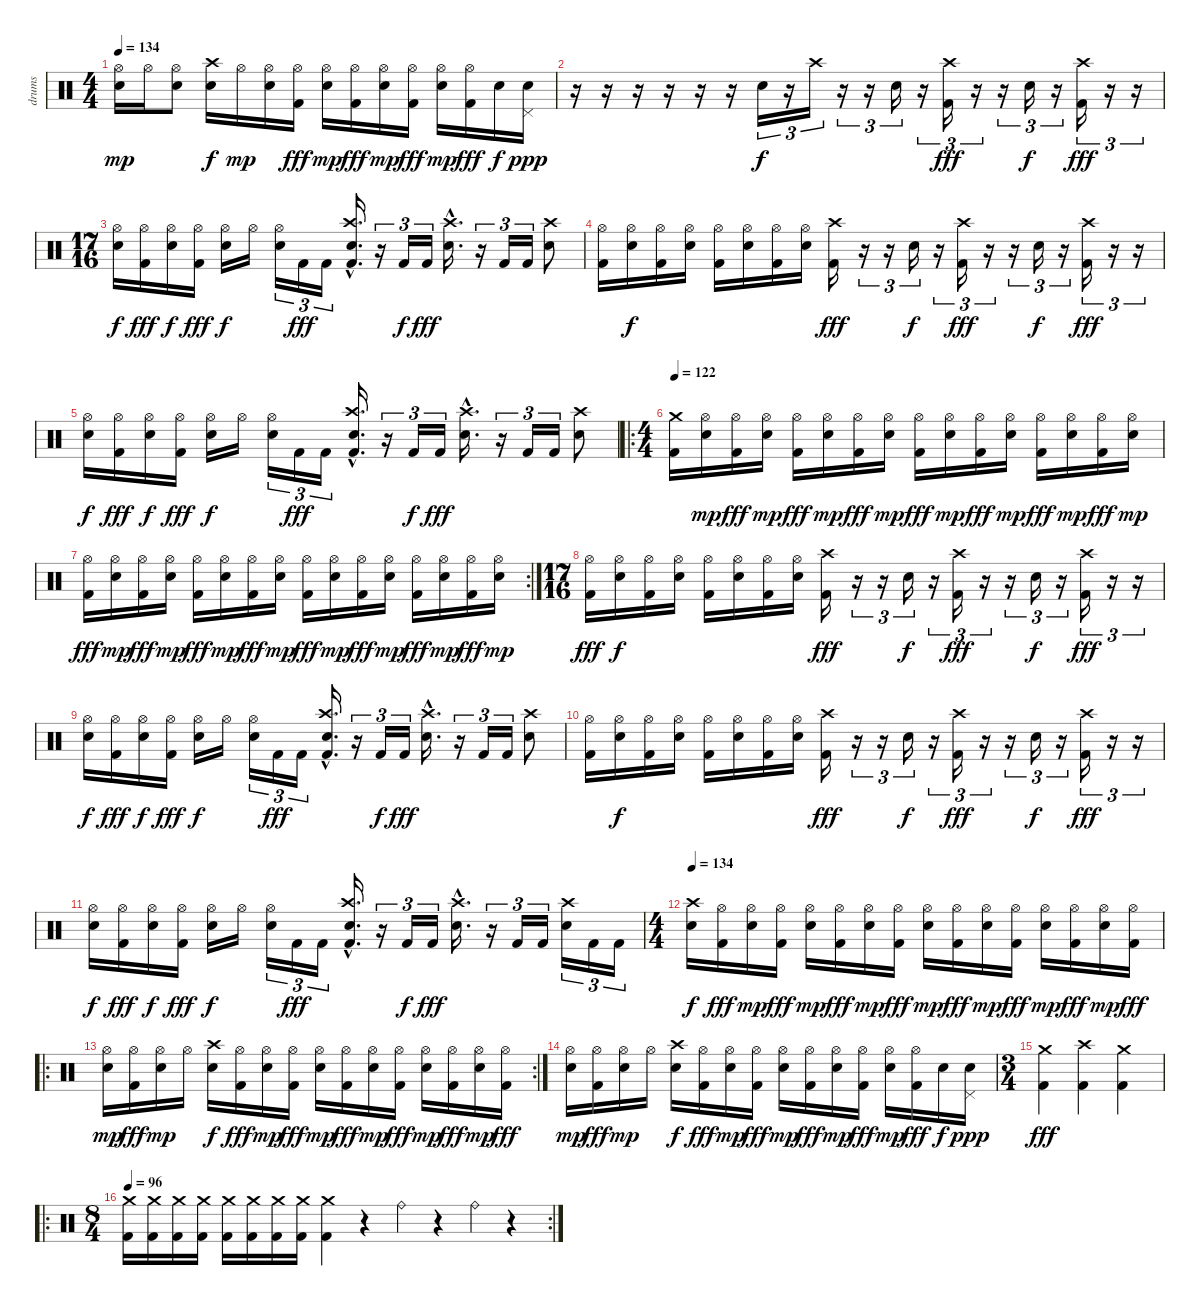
\track ("drums" "drums") {instrument percussion}
\staff {score}
\articulation defaults
\ts (4 4)
\tempo 134
\clef neutral
\ks c
("Hi-Hat (open)" "Snare (hit) 2").16{dy mp} "Hi-Hat (open)".16 ("Hi-Hat (open)" "Snare (hit) 2").8 ("Crash high (hit)" "Snare (hit) 2").16{dy f} "Hi-Hat (open)".16{dy mp} ("Hi-Hat (open)" "Snare (hit) 2").16 ("Hi-Hat (open)" "Kick (hit) 2").16{dy fff} ("Hi-Hat (open)" "Snare (hit) 2").16{dy mp} ("Hi-Hat (open)" "Kick (hit) 2").16{dy fff} ("Hi-Hat (open)" "Snare (hit) 2").16{dy mp} ("Hi-Hat (open)" "Kick (hit) 2").16{dy fff} ("Hi-Hat (open)" "Snare (hit) 2").16{dy mp} ("Hi-Hat (open)" "Kick (hit) 2").16{dy fff} "Snare (hit) 2".16{dy f} ("Snare (hit) 2" "Pedal Hi-Hat (hit)").16{dy ppp} |
r.16 r.16 r.16 r.16 r.16 r.16 "Snare (hit) 2".16{tu (3 2) dy f} r.16{tu (3 2)} "Crash high (hit)".16{tu (3 2)} r.16{tu (3 2)} r.16{tu (3 2)} "Snare (hit) 2".16{tu (3 2)} r.16{tu (3 2)} ("Crash high (hit)" "Kick (hit) 2").16{tu (3 2) dy fff} r.16{tu (3 2)} r.16{tu (3 2)} "Snare (hit) 2".16{tu (3 2) dy f} r.16{tu (3 2)} ("Crash high (hit)" "Kick (hit) 2").16{tu (3 2) dy fff} r.16{tu (3 2)} r.16{tu (3 2)} |
\ts (17 16)
("Hi-Hat (open)" "Snare (hit) 2").16{dy f} ("Hi-Hat (open)" "Kick (hit) 2").16{dy fff} ("Hi-Hat (open)" "Snare (hit) 2").16{dy f} ("Hi-Hat (open)" "Kick (hit) 2").16{dy fff} ("Hi-Hat (open)" "Snare (hit) 2").16{dy f} "Hi-Hat (open)".16 ("Hi-Hat (open)" "Snare (hit) 2").16{tu (3 2)} "Kick (hit) 2".16{tu (3 2) dy fff} "Kick (hit) 2".16{tu (3 2)} ("Crash high (hit)"{hac} "Snare (hit) 2"{hac} "Kick (hit) 2"{hac}).16{d} r.16{tu (3 2)} "Kick (hit) 2".16{tu (3 2) dy f} "Kick (hit) 2".16{tu (3 2) dy fff} ("Crash high (hit)"{hac} "Snare (hit) 2"{hac}).16{d} r.16{tu (3 2)} "Kick (hit) 2".16{tu (3 2)} "Kick (hit) 2".16{tu (3 2)} ("Crash high (hit)" "Snare (hit) 2").8 |
("Hi-Hat (open)" "Kick (hit) 2").16 ("Hi-Hat (open)" "Snare (hit) 2").16{dy f} ("Hi-Hat (open)" "Kick (hit) 2").16 ("Hi-Hat (open)" "Snare (hit) 2").16 ("Hi-Hat (open)" "Kick (hit) 2").16 ("Hi-Hat (open)" "Snare (hit) 2").16 ("Hi-Hat (open)" "Kick (hit) 2").16 ("Hi-Hat (open)" "Snare (hit) 2").16 ("Crash high (hit)" "Kick (hit) 2").16{dy fff} r.16{tu (3 2)} r.16{tu (3 2)} "Snare (hit) 2".16{tu (3 2) dy f} r.16{tu (3 2)} ("Crash high (hit)" "Kick (hit) 2").16{tu (3 2) dy fff} r.16{tu (3 2)} r.16{tu (3 2)} "Snare (hit) 2".16{tu (3 2) dy f} r.16{tu (3 2)} ("Crash high (hit)" "Kick (hit) 2").16{tu (3 2) dy fff} r.16{tu (3 2)} r.16{tu (3 2)} |
("Hi-Hat (open)" "Snare (hit) 2").16{dy f} ("Hi-Hat (open)" "Kick (hit) 2").16{dy fff} ("Hi-Hat (open)" "Snare (hit) 2").16{dy f} ("Hi-Hat (open)" "Kick (hit) 2").16{dy fff} ("Hi-Hat (open)" "Snare (hit) 2").16{dy f} "Hi-Hat (open)".16 ("Hi-Hat (open)" "Snare (hit) 2").16{tu (3 2)} "Kick (hit) 2".16{tu (3 2) dy fff} "Kick (hit) 2".16{tu (3 2)} ("Crash high (hit)"{hac} "Snare (hit) 2"{hac} "Kick (hit) 2"{hac}).16{d} r.16{tu (3 2)} "Kick (hit) 2".16{tu (3 2) dy f} "Kick (hit) 2".16{tu (3 2) dy fff} ("Crash high (hit)"{hac} "Snare (hit) 2"{hac}).16{d} r.16{tu (3 2)} "Kick (hit) 2".16{tu (3 2)} "Kick (hit) 2".16{tu (3 2)} ("Crash high (hit)" "Snare (hit) 2").8 |
\ro
\ts (4 4)
\tempo 122
("Crash medium (hit)" "Kick (hit) 2").16 ("Hi-Hat (open)" "Snare (hit) 2").16{dy mp} ("Hi-Hat (open)" "Kick (hit) 2").16{dy fff} ("Hi-Hat (open)" "Snare (hit) 2").16{dy mp} ("Hi-Hat (open)" "Kick (hit) 2").16{dy fff} ("Hi-Hat (open)" "Snare (hit) 2").16{dy mp} ("Hi-Hat (open)" "Kick (hit) 2").16{dy fff} ("Hi-Hat (open)" "Snare (hit) 2").16{dy mp} ("Hi-Hat (open)" "Kick (hit) 2").16{dy fff} ("Hi-Hat (open)" "Snare (hit) 2").16{dy mp} ("Hi-Hat (open)" "Kick (hit) 2").16{dy fff} ("Hi-Hat (open)" "Snare (hit) 2").16{dy mp} ("Hi-Hat (open)" "Kick (hit) 2").16{dy fff} ("Hi-Hat (open)" "Snare (hit) 2").16{dy mp} ("Hi-Hat (open)" "Kick (hit) 2").16{dy fff} ("Hi-Hat (open)" "Snare (hit) 2").16{dy mp} |
\rc 2
("Hi-Hat (open)" "Kick (hit) 2").16{dy fff} ("Hi-Hat (open)" "Snare (hit) 2").16{dy mp} ("Hi-Hat (open)" "Kick (hit) 2").16{dy fff} ("Hi-Hat (open)" "Snare (hit) 2").16{dy mp} ("Hi-Hat (open)" "Kick (hit) 2").16{dy fff} ("Hi-Hat (open)" "Snare (hit) 2").16{dy mp} ("Hi-Hat (open)" "Kick (hit) 2").16{dy fff} ("Hi-Hat (open)" "Snare (hit) 2").16{dy mp} ("Hi-Hat (open)" "Kick (hit) 2").16{dy fff} ("Hi-Hat (open)" "Snare (hit) 2").16{dy mp} ("Hi-Hat (open)" "Kick (hit) 2").16{dy fff} ("Hi-Hat (open)" "Snare (hit) 2").16{dy mp} ("Hi-Hat (open)" "Kick (hit) 2").16{dy fff} ("Hi-Hat (open)" "Snare (hit) 2").16{dy mp} ("Hi-Hat (open)" "Kick (hit) 2").16{dy fff} ("Hi-Hat (open)" "Snare (hit) 2").16{dy mp} |
\ts (17 16)
("Hi-Hat (open)" "Kick (hit) 2").16{dy fff} ("Hi-Hat (open)" "Snare (hit) 2").16{dy f} ("Hi-Hat (open)" "Kick (hit) 2").16 ("Hi-Hat (open)" "Snare (hit) 2").16 ("Hi-Hat (open)" "Kick (hit) 2").16 ("Hi-Hat (open)" "Snare (hit) 2").16 ("Hi-Hat (open)" "Kick (hit) 2").16 ("Hi-Hat (open)" "Snare (hit) 2").16 ("Crash high (hit)" "Kick (hit) 2").16{dy fff} r.16{tu (3 2)} r.16{tu (3 2)} "Snare (hit) 2".16{tu (3 2) dy f} r.16{tu (3 2)} ("Crash high (hit)" "Kick (hit) 2").16{tu (3 2) dy fff} r.16{tu (3 2)} r.16{tu (3 2)} "Snare (hit) 2".16{tu (3 2) dy f} r.16{tu (3 2)} ("Crash high (hit)" "Kick (hit) 2").16{tu (3 2) dy fff} r.16{tu (3 2)} r.16{tu (3 2)} |
("Hi-Hat (open)" "Snare (hit) 2").16{dy f} ("Hi-Hat (open)" "Kick (hit) 2").16{dy fff} ("Hi-Hat (open)" "Snare (hit) 2").16{dy f} ("Hi-Hat (open)" "Kick (hit) 2").16{dy fff} ("Hi-Hat (open)" "Snare (hit) 2").16{dy f} "Hi-Hat (open)".16 ("Hi-Hat (open)" "Snare (hit) 2").16{tu (3 2)} "Kick (hit) 2".16{tu (3 2) dy fff} "Kick (hit) 2".16{tu (3 2)} ("Crash high (hit)"{hac} "Snare (hit) 2"{hac} "Kick (hit) 2"{hac}).16{d} r.16{tu (3 2)} "Kick (hit) 2".16{tu (3 2) dy f} "Kick (hit) 2".16{tu (3 2) dy fff} ("Crash high (hit)"{hac} "Snare (hit) 2"{hac}).16{d} r.16{tu (3 2)} "Kick (hit) 2".16{tu (3 2)} "Kick (hit) 2".16{tu (3 2)} ("Crash high (hit)" "Snare (hit) 2").8 |
("Hi-Hat (open)" "Kick (hit) 2").16 ("Hi-Hat (open)" "Snare (hit) 2").16{dy f} ("Hi-Hat (open)" "Kick (hit) 2").16 ("Hi-Hat (open)" "Snare (hit) 2").16 ("Hi-Hat (open)" "Kick (hit) 2").16 ("Hi-Hat (open)" "Snare (hit) 2").16 ("Hi-Hat (open)" "Kick (hit) 2").16 ("Hi-Hat (open)" "Snare (hit) 2").16 ("Crash high (hit)" "Kick (hit) 2").16{dy fff} r.16{tu (3 2)} r.16{tu (3 2)} "Snare (hit) 2".16{tu (3 2) dy f} r.16{tu (3 2)} ("Crash high (hit)" "Kick (hit) 2").16{tu (3 2) dy fff} r.16{tu (3 2)} r.16{tu (3 2)} "Snare (hit) 2".16{tu (3 2) dy f} r.16{tu (3 2)} ("Crash high (hit)" "Kick (hit) 2").16{tu (3 2) dy fff} r.16{tu (3 2)} r.16{tu (3 2)} |
("Hi-Hat (open)" "Snare (hit) 2").16{dy f} ("Hi-Hat (open)" "Kick (hit) 2").16{dy fff} ("Hi-Hat (open)" "Snare (hit) 2").16{dy f} ("Hi-Hat (open)" "Kick (hit) 2").16{dy fff} ("Hi-Hat (open)" "Snare (hit) 2").16{dy f} "Hi-Hat (open)".16 ("Hi-Hat (open)" "Snare (hit) 2").16{tu (3 2)} "Kick (hit) 2".16{tu (3 2) dy fff} "Kick (hit) 2".16{tu (3 2)} ("Crash high (hit)"{hac} "Snare (hit) 2"{hac} "Kick (hit) 2"{hac}).16{d} r.16{tu (3 2)} "Kick (hit) 2".16{tu (3 2) dy f} "Kick (hit) 2".16{tu (3 2) dy fff} ("Crash high (hit)"{hac} "Snare (hit) 2"{hac}).16{d} r.16{tu (3 2)} "Kick (hit) 2".16{tu (3 2)} "Kick (hit) 2".16{tu (3 2)} ("Crash high (hit)" "Snare (hit) 2").16{tu (3 2)} "Kick (hit) 2".16{tu (3 2)} "Kick (hit) 2".16{tu (3 2)} |
\ts (4 4)
\tempo 134
("Crash high (hit)" "Snare (hit) 2").16{dy f} ("Hi-Hat (open)" "Kick (hit) 2").16{dy fff} ("Hi-Hat (open)" "Snare (hit) 2").16{dy mp} ("Hi-Hat (open)" "Kick (hit) 2").16{dy fff} ("Hi-Hat (open)" "Snare (hit) 2").16{dy mp} ("Hi-Hat (open)" "Kick (hit) 2").16{dy fff} ("Hi-Hat (open)" "Snare (hit) 2").16{dy mp} ("Hi-Hat (open)" "Kick (hit) 2").16{dy fff} ("Hi-Hat (open)" "Snare (hit) 2").16{dy mp} ("Hi-Hat (open)" "Kick (hit) 2").16{dy fff} ("Hi-Hat (open)" "Snare (hit) 2").16{dy mp} ("Hi-Hat (open)" "Kick (hit) 2").16{dy fff} ("Hi-Hat (open)" "Snare (hit) 2").16{dy mp} ("Hi-Hat (open)" "Kick (hit) 2").16{dy fff} ("Hi-Hat (open)" "Snare (hit) 2").16{dy mp} ("Hi-Hat (open)" "Kick (hit) 2").16{dy fff} |
\ro
\rc 2
("Hi-Hat (open)" "Snare (hit) 2").16{dy mp} ("Hi-Hat (open)" "Kick (hit) 2").16{dy fff} ("Hi-Hat (open)" "Snare (hit) 2").16{dy mp} "Hi-Hat (open)".16 ("Crash high (hit)" "Snare (hit) 2").16{dy f} ("Hi-Hat (open)" "Kick (hit) 2").16{dy fff} ("Hi-Hat (open)" "Snare (hit) 2").16{dy mp} ("Hi-Hat (open)" "Kick (hit) 2").16{dy fff} ("Hi-Hat (open)" "Snare (hit) 2").16{dy mp} ("Hi-Hat (open)" "Kick (hit) 2").16{dy fff} ("Hi-Hat (open)" "Snare (hit) 2").16{dy mp} ("Hi-Hat (open)" "Kick (hit) 2").16{dy fff} ("Hi-Hat (open)" "Snare (hit) 2").16{dy mp} ("Hi-Hat (open)" "Kick (hit) 2").16{dy fff} ("Hi-Hat (open)" "Snare (hit) 2").16{dy mp} ("Hi-Hat (open)" "Kick (hit) 2").16{dy fff} |
("Hi-Hat (open)" "Snare (hit) 2").16{dy mp} ("Hi-Hat (open)" "Kick (hit) 2").16{dy fff} ("Hi-Hat (open)" "Snare (hit) 2").16{dy mp} "Hi-Hat (open)".16 ("Crash high (hit)" "Snare (hit) 2").16{dy f} ("Hi-Hat (open)" "Kick (hit) 2").16{dy fff} ("Hi-Hat (open)" "Snare (hit) 2").16{dy mp} ("Hi-Hat (open)" "Kick (hit) 2").16{dy fff} ("Hi-Hat (open)" "Snare (hit) 2").16{dy mp} ("Hi-Hat (open)" "Kick (hit) 2").16{dy fff} ("Hi-Hat (open)" "Snare (hit) 2").16{dy mp} ("Hi-Hat (open)" "Kick (hit) 2").16{dy fff} ("Hi-Hat (open)" "Snare (hit) 2").16{dy mp} ("Hi-Hat (open)" "Kick (hit) 2").16{dy fff} "Snare (hit) 2".16{dy f} ("Snare (hit) 2" "Pedal Hi-Hat (hit)").16{dy ppp} |
\ts (3 4)
("Crash medium (hit)" "Kick (hit) 2").4{dy fff} ("Crash high (hit)" "Kick (hit) 2").4 ("Crash medium (hit)" "Kick (hit) 2").4 |
\ro
\rc 2
\ts (8 4)
\tempo 96
("Crash medium (hit)" "Kick (hit) 2").16 ("Crash medium (hit)" "Kick (hit) 2").16 ("Crash medium (hit)" "Kick (hit) 2").16 ("Crash medium (hit)" "Kick (hit) 2").16 ("Crash medium (hit)" "Kick (hit) 2").16 ("Crash medium (hit)" "Kick (hit) 2").16 ("Crash medium (hit)" "Kick (hit) 2").16 ("Crash medium (hit)" "Kick (hit) 2").16 ("Crash medium (hit)" "Kick (hit) 2").4 r.4 "Ride (bell)".4 r.4 "Ride (bell)".4 r.4
